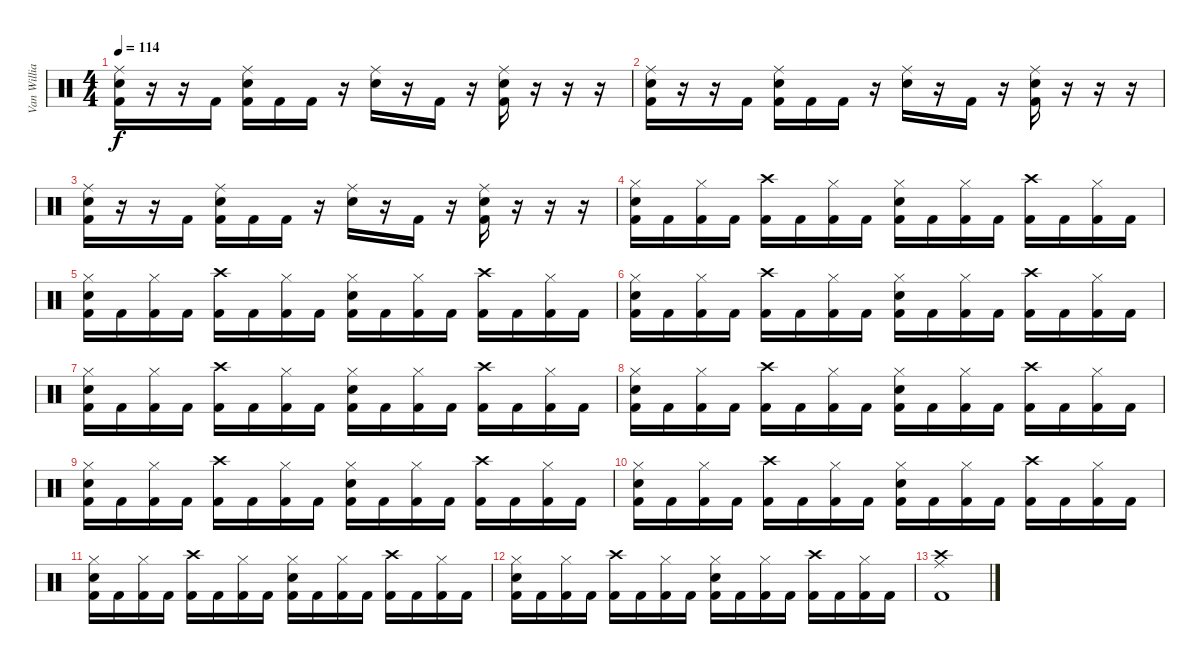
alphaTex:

\track ("Van Williams (Drums)" "Van Willia") {instrument percussion}
\staff {score}
\articulation defaults
\ts (4 4)
\tempo 114
\clef neutral
\ks c
("Ride (middle)" "Snare (hit) 2" "Kick (hit) 2").16{dy f} r.16 r.16 "Kick (hit) 2".16 ("Ride (middle)" "Snare (hit) 2" "Kick (hit) 2").16 "Kick (hit) 2".16 "Kick (hit) 2".16 r.16 ("Ride (middle)" "Snare (hit) 2").16 r.16 "Kick (hit) 2".16 r.16 ("Ride (middle)" "Snare (hit) 2" "Kick (hit) 2").16 r.16 r.16 r.16 |
("Ride (middle)" "Snare (hit) 2" "Kick (hit) 2").16 r.16 r.16 "Kick (hit) 2".16 ("Ride (middle)" "Snare (hit) 2" "Kick (hit) 2").16 "Kick (hit) 2".16 "Kick (hit) 2".16 r.16 ("Ride (middle)" "Snare (hit) 2").16 r.16 "Kick (hit) 2".16 r.16 ("Ride (middle)" "Snare (hit) 2" "Kick (hit) 2").16 r.16 r.16 r.16 |
("Ride (middle)" "Snare (hit) 2" "Kick (hit) 2").16 r.16 r.16 "Kick (hit) 2".16 ("Ride (middle)" "Snare (hit) 2" "Kick (hit) 2").16 "Kick (hit) 2".16 "Kick (hit) 2".16 r.16 ("Ride (middle)" "Snare (hit) 2").16 r.16 "Kick (hit) 2".16 r.16 ("Ride (middle)" "Snare (hit) 2" "Kick (hit) 2").16 r.16 r.16 r.16 |
("Snare (hit) 2" "Hi-Hat (closed)" "Kick (hit) 2").16 "Kick (hit) 2".16 ("Hi-Hat (closed)" "Kick (hit) 2").16 "Kick (hit) 2".16 ("Crash high (hit)" "Kick (hit) 2").16 "Kick (hit) 2".16 ("Hi-Hat (closed)" "Kick (hit) 2").16 "Kick (hit) 2".16 ("Snare (hit) 2" "Hi-Hat (closed)" "Kick (hit) 2").16 "Kick (hit) 2".16 ("Hi-Hat (closed)" "Kick (hit) 2").16 "Kick (hit) 2".16 ("Crash high (hit)" "Kick (hit) 2").16 "Kick (hit) 2".16 ("Hi-Hat (closed)" "Kick (hit) 2").16 "Kick (hit) 2".16 |
("Snare (hit) 2" "Hi-Hat (closed)" "Kick (hit) 2").16 "Kick (hit) 2".16 ("Hi-Hat (closed)" "Kick (hit) 2").16 "Kick (hit) 2".16 ("Crash high (hit)" "Kick (hit) 2").16 "Kick (hit) 2".16 ("Hi-Hat (closed)" "Kick (hit) 2").16 "Kick (hit) 2".16 ("Snare (hit) 2" "Hi-Hat (closed)" "Kick (hit) 2").16 "Kick (hit) 2".16 ("Hi-Hat (closed)" "Kick (hit) 2").16 "Kick (hit) 2".16 ("Crash high (hit)" "Kick (hit) 2").16 "Kick (hit) 2".16 ("Hi-Hat (closed)" "Kick (hit) 2").16 "Kick (hit) 2".16 |
("Snare (hit) 2" "Hi-Hat (closed)" "Kick (hit) 2").16 "Kick (hit) 2".16 ("Hi-Hat (closed)" "Kick (hit) 2").16 "Kick (hit) 2".16 ("Crash high (hit)" "Kick (hit) 2").16 "Kick (hit) 2".16 ("Hi-Hat (closed)" "Kick (hit) 2").16 "Kick (hit) 2".16 ("Snare (hit) 2" "Hi-Hat (closed)" "Kick (hit) 2").16 "Kick (hit) 2".16 ("Hi-Hat (closed)" "Kick (hit) 2").16 "Kick (hit) 2".16 ("Crash high (hit)" "Kick (hit) 2").16 "Kick (hit) 2".16 ("Hi-Hat (closed)" "Kick (hit) 2").16 "Kick (hit) 2".16 |
("Snare (hit) 2" "Hi-Hat (closed)" "Kick (hit) 2").16 "Kick (hit) 2".16 ("Hi-Hat (closed)" "Kick (hit) 2").16 "Kick (hit) 2".16 ("Crash high (hit)" "Kick (hit) 2").16 "Kick (hit) 2".16 ("Hi-Hat (closed)" "Kick (hit) 2").16 "Kick (hit) 2".16 ("Snare (hit) 2" "Hi-Hat (closed)" "Kick (hit) 2").16 "Kick (hit) 2".16 ("Hi-Hat (closed)" "Kick (hit) 2").16 "Kick (hit) 2".16 ("Crash high (hit)" "Kick (hit) 2").16 "Kick (hit) 2".16 ("Hi-Hat (closed)" "Kick (hit) 2").16 "Kick (hit) 2".16 |
("Snare (hit) 2" "Hi-Hat (closed)" "Kick (hit) 2").16 "Kick (hit) 2".16 ("Hi-Hat (closed)" "Kick (hit) 2").16 "Kick (hit) 2".16 ("Crash high (hit)" "Kick (hit) 2").16 "Kick (hit) 2".16 ("Hi-Hat (closed)" "Kick (hit) 2").16 "Kick (hit) 2".16 ("Snare (hit) 2" "Hi-Hat (closed)" "Kick (hit) 2").16 "Kick (hit) 2".16 ("Hi-Hat (closed)" "Kick (hit) 2").16 "Kick (hit) 2".16 ("Crash high (hit)" "Kick (hit) 2").16 "Kick (hit) 2".16 ("Hi-Hat (closed)" "Kick (hit) 2").16 "Kick (hit) 2".16 |
("Snare (hit) 2" "Hi-Hat (closed)" "Kick (hit) 2").16 "Kick (hit) 2".16 ("Hi-Hat (closed)" "Kick (hit) 2").16 "Kick (hit) 2".16 ("Crash high (hit)" "Kick (hit) 2").16 "Kick (hit) 2".16 ("Hi-Hat (closed)" "Kick (hit) 2").16 "Kick (hit) 2".16 ("Snare (hit) 2" "Hi-Hat (closed)" "Kick (hit) 2").16 "Kick (hit) 2".16 ("Hi-Hat (closed)" "Kick (hit) 2").16 "Kick (hit) 2".16 ("Crash high (hit)" "Kick (hit) 2").16 "Kick (hit) 2".16 ("Hi-Hat (closed)" "Kick (hit) 2").16 "Kick (hit) 2".16 |
("Snare (hit) 2" "Hi-Hat (closed)" "Kick (hit) 2").16 "Kick (hit) 2".16 ("Hi-Hat (closed)" "Kick (hit) 2").16 "Kick (hit) 2".16 ("Crash high (hit)" "Kick (hit) 2").16 "Kick (hit) 2".16 ("Hi-Hat (closed)" "Kick (hit) 2").16 "Kick (hit) 2".16 ("Snare (hit) 2" "Hi-Hat (closed)" "Kick (hit) 2").16 "Kick (hit) 2".16 ("Hi-Hat (closed)" "Kick (hit) 2").16 "Kick (hit) 2".16 ("Crash high (hit)" "Kick (hit) 2").16 "Kick (hit) 2".16 ("Hi-Hat (closed)" "Kick (hit) 2").16 "Kick (hit) 2".16 |
("Snare (hit) 2" "Hi-Hat (closed)" "Kick (hit) 2").16 "Kick (hit) 2".16 ("Hi-Hat (closed)" "Kick (hit) 2").16 "Kick (hit) 2".16 ("Crash high (hit)" "Kick (hit) 2").16 "Kick (hit) 2".16 ("Hi-Hat (closed)" "Kick (hit) 2").16 "Kick (hit) 2".16 ("Snare (hit) 2" "Hi-Hat (closed)" "Kick (hit) 2").16 "Kick (hit) 2".16 ("Hi-Hat (closed)" "Kick (hit) 2").16 "Kick (hit) 2".16 ("Crash high (hit)" "Kick (hit) 2").16 "Kick (hit) 2".16 ("Hi-Hat (closed)" "Kick (hit) 2").16 "Kick (hit) 2".16 |
("Snare (hit) 2" "Hi-Hat (closed)" "Kick (hit) 2").16 "Kick (hit) 2".16 ("Hi-Hat (closed)" "Kick (hit) 2").16 "Kick (hit) 2".16 ("Crash high (hit)" "Kick (hit) 2").16 "Kick (hit) 2".16 ("Hi-Hat (closed)" "Kick (hit) 2").16 "Kick (hit) 2".16 ("Snare (hit) 2" "Hi-Hat (closed)" "Kick (hit) 2").16 "Kick (hit) 2".16 ("Hi-Hat (closed)" "Kick (hit) 2").16 "Kick (hit) 2".16 ("Crash high (hit)" "Kick (hit) 2").16 "Kick (hit) 2".16 ("Hi-Hat (closed)" "Kick (hit) 2").16 "Kick (hit) 2".16 |
("Crash high (hit)" "Ride (middle)" "Kick (hit) 2").1
